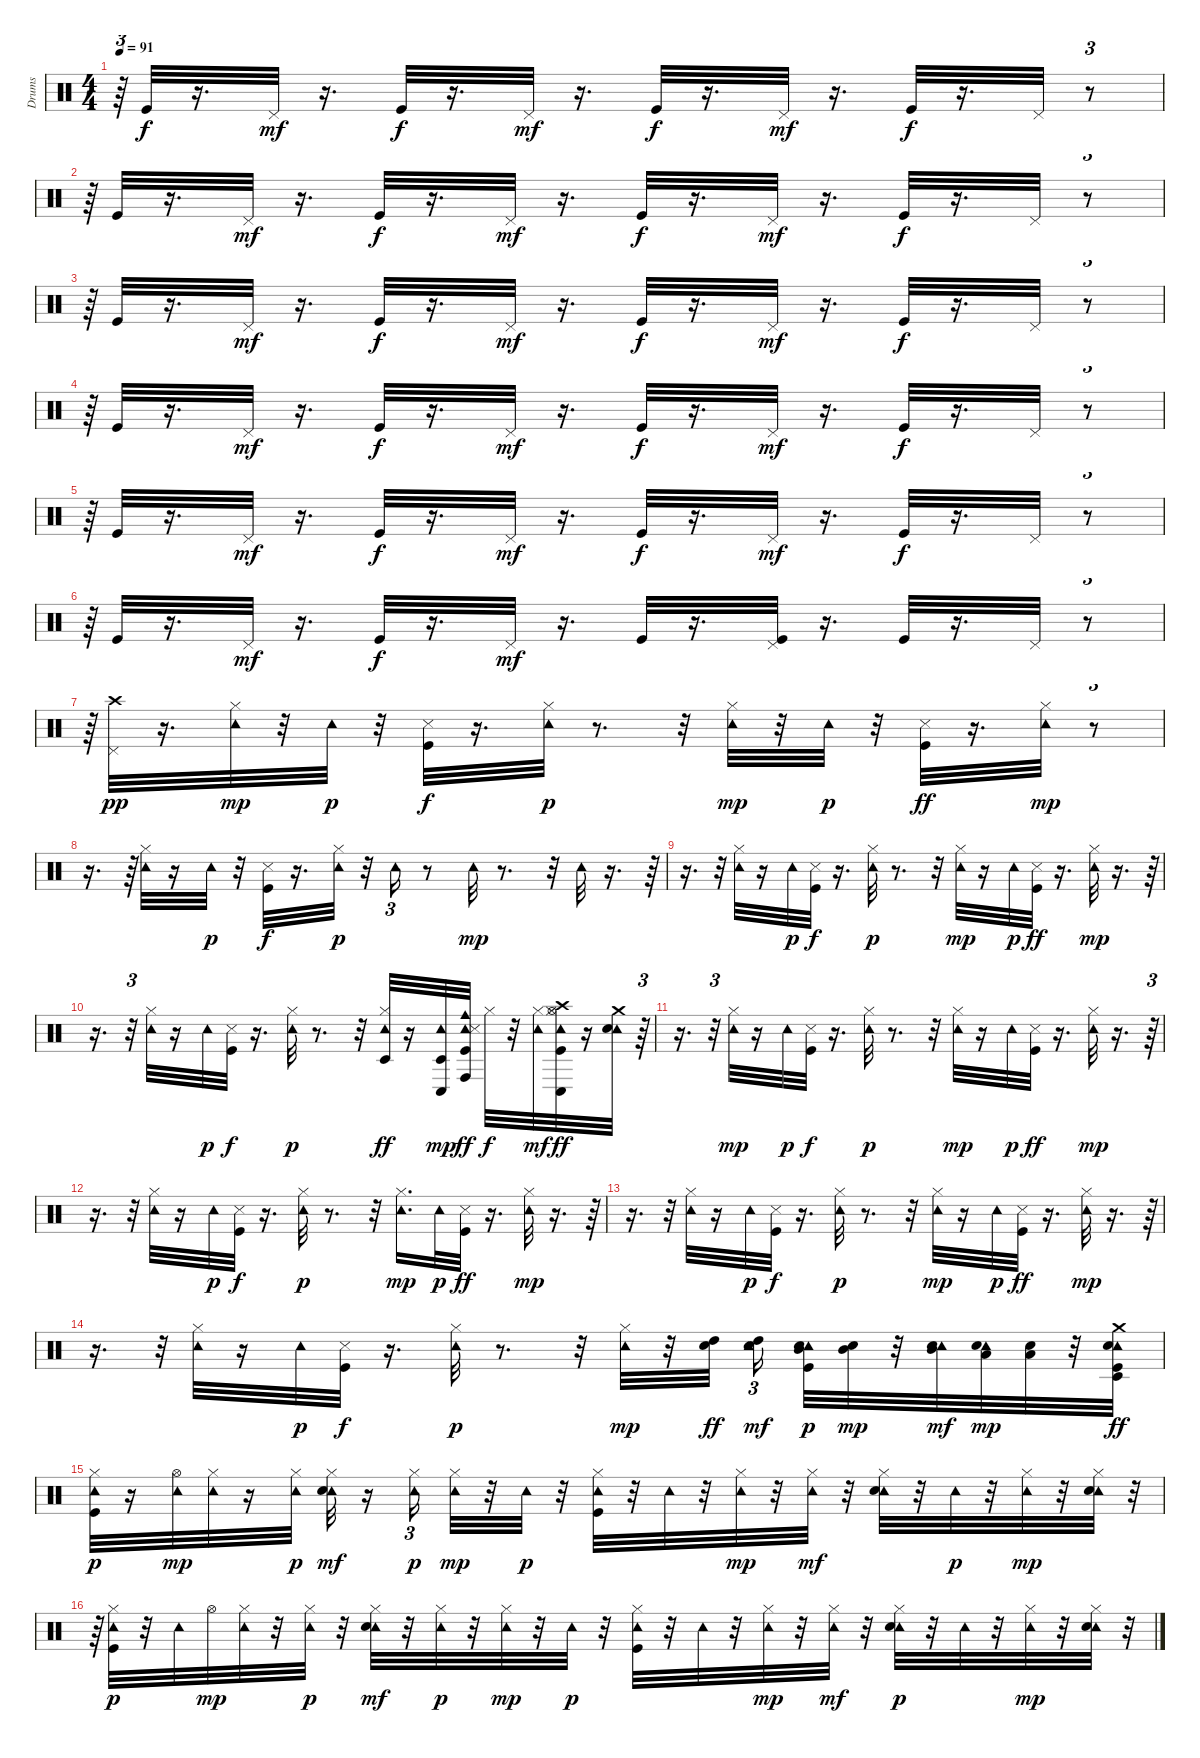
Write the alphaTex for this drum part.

\track ("Drums" "Drums") {instrument percussion}
\staff {score}
\articulation defaults
\ts (4 4)
\tempo 91
\clef neutral
\ks c
r.64{tu (3 2) dy f} "Kick (hit)".32 r.16{d} "Pedal Hi-Hat (hit)".32{dy mf} r.16{d} "Kick (hit)".32{dy f} r.16{d} "Pedal Hi-Hat (hit)".32{dy mf} r.16{d} "Kick (hit)".32{dy f} r.16{d} "Pedal Hi-Hat (hit)".32{dy mf} r.16{d} "Kick (hit)".32{dy f} r.16{d} "Pedal Hi-Hat (hit)".32 r.8{tu (3 2)} |
r.64{tu (3 2)} "Kick (hit)".32 r.16{d} "Pedal Hi-Hat (hit)".32{dy mf} r.16{d} "Kick (hit)".32{dy f} r.16{d} "Pedal Hi-Hat (hit)".32{dy mf} r.16{d} "Kick (hit)".32{dy f} r.16{d} "Pedal Hi-Hat (hit)".32{dy mf} r.16{d} "Kick (hit)".32{dy f} r.16{d} "Pedal Hi-Hat (hit)".32 r.8{tu (3 2)} |
r.64{tu (3 2)} "Kick (hit)".32 r.16{d} "Pedal Hi-Hat (hit)".32{dy mf} r.16{d} "Kick (hit)".32{dy f} r.16{d} "Pedal Hi-Hat (hit)".32{dy mf} r.16{d} "Kick (hit)".32{dy f} r.16{d} "Pedal Hi-Hat (hit)".32{dy mf} r.16{d} "Kick (hit)".32{dy f} r.16{d} "Pedal Hi-Hat (hit)".32 r.8{tu (3 2)} |
r.64{tu (3 2)} "Kick (hit)".32 r.16{d} "Pedal Hi-Hat (hit)".32{dy mf} r.16{d} "Kick (hit)".32{dy f} r.16{d} "Pedal Hi-Hat (hit)".32{dy mf} r.16{d} "Kick (hit)".32{dy f} r.16{d} "Pedal Hi-Hat (hit)".32{dy mf} r.16{d} "Kick (hit)".32{dy f} r.16{d} "Pedal Hi-Hat (hit)".32 r.8{tu (3 2)} |
r.64{tu (3 2)} "Kick (hit)".32 r.16{d} "Pedal Hi-Hat (hit)".32{dy mf} r.16{d} "Kick (hit)".32{dy f} r.16{d} "Pedal Hi-Hat (hit)".32{dy mf} r.16{d} "Kick (hit)".32{dy f} r.16{d} "Pedal Hi-Hat (hit)".32{dy mf} r.16{d} "Kick (hit)".32{dy f} r.16{d} "Pedal Hi-Hat (hit)".32 r.8{tu (3 2)} |
r.64{tu (3 2)} "Kick (hit)".32 r.16{d} "Pedal Hi-Hat (hit)".32{dy mf} r.16{d} "Kick (hit)".32{dy f} r.16{d} "Pedal Hi-Hat (hit)".32{dy mf} r.16{d} "Kick (hit)".32 r.16{d} ("Kick (hit)" "Pedal Hi-Hat (hit)").32 r.16{d} "Kick (hit)".32 r.16{d} "Pedal Hi-Hat (hit)".32 r.8{tu (3 2)} |
r.64{tu (3 2)} ("Crash high (hit)" "Pedal Hi-Hat (hit)").32{dy pp} r.16{d} ("Tambourine (hit)" "Hi-Hat (closed)").32{dy mp} r.32 "Tambourine (hit)".32{dy p} r.32 ("Kick (hit)" "Snare (side stick) 3").32{dy f} r.16{d} ("Tambourine (hit)" "Hi-Hat (closed)").32{dy p} r.8{d} r.32 ("Tambourine (hit)" "Hi-Hat (closed)").32{dy mp} r.32 "Tambourine (hit)".32{dy p} r.32 ("Snare (side stick) 3" "Kick (hit)").32{dy ff} r.16{d} ("Tambourine (hit)" "Hi-Hat (closed)").32{dy mp} r.8{tu (3 2)} |
r.16{d} r.64{tu (3 2)} ("Hi-Hat (closed)" "Tambourine (hit)").32 r.16 "Tambourine (hit)".32{dy p} r.32 ("Kick (hit)" "Snare (side stick) 3").32{dy f} r.16{d} ("Tambourine (hit)" "Hi-Hat (closed)").32{dy p} r.32 "Tambourine (hit)".16{tu (3 2)} r.8 "Tambourine (hit)".32{dy mp} r.8{d} r.32 "Tambourine (hit)".32 r.16{d} r.64{tu (3 2)} |
r.16{d} r.32{tu (3 2)} ("Tambourine (hit)" "Hi-Hat (closed)").32 r.16 "Tambourine (hit)".32{dy p} ("Kick (hit)" "Snare (side stick) 3").32{dy f} r.16{d} ("Tambourine (hit)" "Hi-Hat (closed)").32{dy p} r.8{d} r.32 ("Tambourine (hit)" "Hi-Hat (closed)").32{dy mp} r.16 "Tambourine (hit)".32{dy p} ("Kick (hit)" "Snare (side stick) 3").32{dy ff} r.16{d} ("Tambourine (hit)" "Hi-Hat (closed)").32{dy mp} r.16{d} r.64{tu (3 2)} |
r.16{d} r.32{tu (3 2)} ("Tambourine (hit)" "Hi-Hat (closed)").32 r.16 "Tambourine (hit)".32{dy p} ("Kick (hit)" "Snare (side stick) 3").32{dy f} r.16{d} ("Hi-Hat (closed)" "Tambourine (hit)").32{dy p} r.8{d} r.32 ("Tambourine (hit)" "Timbale low (hit)" "Hi-Hat (closed)").32{dy ff} r.16 ("Tambourine (hit)" "Timbale low (hit)" "Conga low (hit)").32{dy mp} ("Tambourine (hit)" "Kick (hit)" "Snare (side stick) 3" "Cowbell medium (hit)" "Conga high (hit)").32{dy ff} "Hi-Hat (closed)".32{dy f} r.32 ("Tambourine (hit)" "Hi-Hat (closed)").32{dy mf} ("Tambourine (hit)" "Hi-Hat (closed)" "Crash high (hit)" "Hi-Hat (open)" "Conga low (hit)" "Kick (hit)").32{dy ff} r.16 ("Tambourine (hit)" "Metronome (bell)" "Crash medium (hit)").32 r.64{tu (3 2)} |
r.16{d} r.32{tu (3 2)} ("Tambourine (hit)" "Hi-Hat (closed)").32{dy mp} r.16 "Tambourine (hit)".32{dy p} ("Kick (hit)" "Snare (side stick) 3").32{dy f} r.16{d} ("Tambourine (hit)" "Hi-Hat (closed)").32{dy p} r.8{d} r.32 ("Tambourine (hit)" "Hi-Hat (closed)").32{dy mp} r.16 "Tambourine (hit)".32{dy p} ("Kick (hit)" "Snare (side stick) 3").32{dy ff} r.16{d} ("Tambourine (hit)" "Hi-Hat (closed)").32{dy mp} r.16{d} r.64{tu (3 2)} |
r.16{d} r.32{tu (3 2)} ("Tambourine (hit)" "Hi-Hat (closed)").32 r.16 "Tambourine (hit)".32{dy p} ("Kick (hit)" "Snare (side stick) 3").32{dy f} r.16{d} ("Tambourine (hit)" "Hi-Hat (closed)").32{dy p} r.8{d} r.32 ("Tambourine (hit)" "Hi-Hat (closed)").16{d dy mp} "Tambourine (hit)".32{dy p} ("Kick (hit)" "Snare (side stick) 3").32{dy ff} r.16{d} ("Tambourine (hit)" "Hi-Hat (closed)").32{dy mp} r.16{d} r.64{tu (3 2)} |
r.16{d} r.32{tu (3 2)} ("Tambourine (hit)" "Hi-Hat (closed)").32 r.16 "Tambourine (hit)".32{dy p} ("Kick (hit)" "Snare (side stick) 3").32{dy f} r.16{d} ("Tambourine (hit)" "Hi-Hat (closed)").32{dy p} r.8{d} r.32 ("Tambourine (hit)" "Hi-Hat (closed)").32{dy mp} r.16 "Tambourine (hit)".32{dy p} ("Snare (side stick) 3" "Kick (hit)").32{dy ff} r.16{d} ("Tambourine (hit)" "Hi-Hat (closed)").32{dy mp} r.16{d} r.64{tu (3 2)} |
r.16{d} r.32{tu (3 2)} ("Tambourine (hit)" "Hi-Hat (closed)").32 r.16 "Tambourine (hit)".32{dy p} ("Kick (hit)" "Snare (side stick) 3").32{dy f} r.16{d} ("Tambourine (hit)" "Hi-Hat (closed)").32{dy p} r.8{d} r.32 ("Tambourine (hit)" "Hi-Hat (closed)").32{dy mp} r.32 ("Metronome (bell)" "High Tom (hit)").32{dy ff} ("Tambourine (hit)" "Metronome (bell)" "High Tom (hit)").16{tu (3 2) dy mf} ("Tambourine (hit)" "Metronome (bell)" "Kick (hit)" "Mid Tom (hit)").32{dy p} ("Metronome (bell)" "Mid Tom (hit)").32{dy mp} r.32 ("Tambourine (hit)" "Metronome (bell)" "Mid Tom (hit)").32{dy mf} ("Tambourine (hit)" "Metronome (bell)" "Low Tom (hit)").32{dy mp} ("Metronome (bell)" "Low Tom (hit)").32 r.32 ("Tambourine (hit)" "Kick (hit)" "Metronome (bell)" "Timbale low (hit)" "Crash medium (hit)").32{dy ff} |
("Tambourine (hit)" "Kick (hit)" "Hi-Hat (closed)").32{dy p} r.16 ("Tambourine (hit)" "Hi-Hat (open)").32{dy mp} ("Tambourine (hit)" "Hi-Hat (closed)").32 r.16 ("Tambourine (hit)" "Hi-Hat (closed)").32{dy p} ("Hi-Hat (closed)" "Tambourine (hit)" "Metronome (bell)").32{dy mf} r.16 ("Tambourine (hit)" "Hi-Hat (closed)").16{tu (3 2) dy p} ("Tambourine (hit)" "Hi-Hat (closed)").32{dy mp} r.32 "Tambourine (hit)".32{dy p} r.32 ("Tambourine (hit)" "Kick (hit)" "Hi-Hat (closed)").32 r.32 "Tambourine (hit)".32 r.32 ("Tambourine (hit)" "Hi-Hat (closed)").32{dy mp} r.32 ("Tambourine (hit)" "Hi-Hat (closed)").32{dy mf} r.32 ("Tambourine (hit)" "Hi-Hat (closed)" "Metronome (bell)").32 r.32 "Tambourine (hit)".32{dy p} r.32 ("Tambourine (hit)" "Hi-Hat (closed)").32{dy mp} r.32 ("Tambourine (hit)" "Metronome (bell)" "Hi-Hat (closed)").32 r.32{tu (3 2)} |
r.64{tu (3 2)} ("Tambourine (hit)" "Kick (hit)" "Hi-Hat (closed)").32{dy p} r.32 "Tambourine (hit)".32 "Hi-Hat (open)".32{dy mp} ("Tambourine (hit)" "Hi-Hat (closed)").32 r.32 ("Tambourine (hit)" "Hi-Hat (closed)").32{dy p} r.32 ("Tambourine (hit)" "Hi-Hat (closed)" "Metronome (bell)").32{dy mf} r.32 ("Tambourine (hit)" "Hi-Hat (closed)").32{dy p} r.32 ("Tambourine (hit)" "Hi-Hat (closed)").32{dy mp} r.32 "Tambourine (hit)".32{dy p} r.32 ("Tambourine (hit)" "Hi-Hat (closed)" "Kick (hit)").32 r.32 "Tambourine (hit)".32 r.32 ("Tambourine (hit)" "Hi-Hat (closed)").32{dy mp} r.32 ("Tambourine (hit)" "Hi-Hat (closed)").32{dy mf} r.32 ("Tambourine (hit)" "Metronome (bell)" "Hi-Hat (closed)").32{dy p} r.32 "Tambourine (hit)".32 r.32 ("Tambourine (hit)" "Hi-Hat (closed)").32{dy mp} r.32 ("Tambourine (hit)" "Metronome (bell)" "Hi-Hat (closed)").32 r.32{tu (3 2)}
